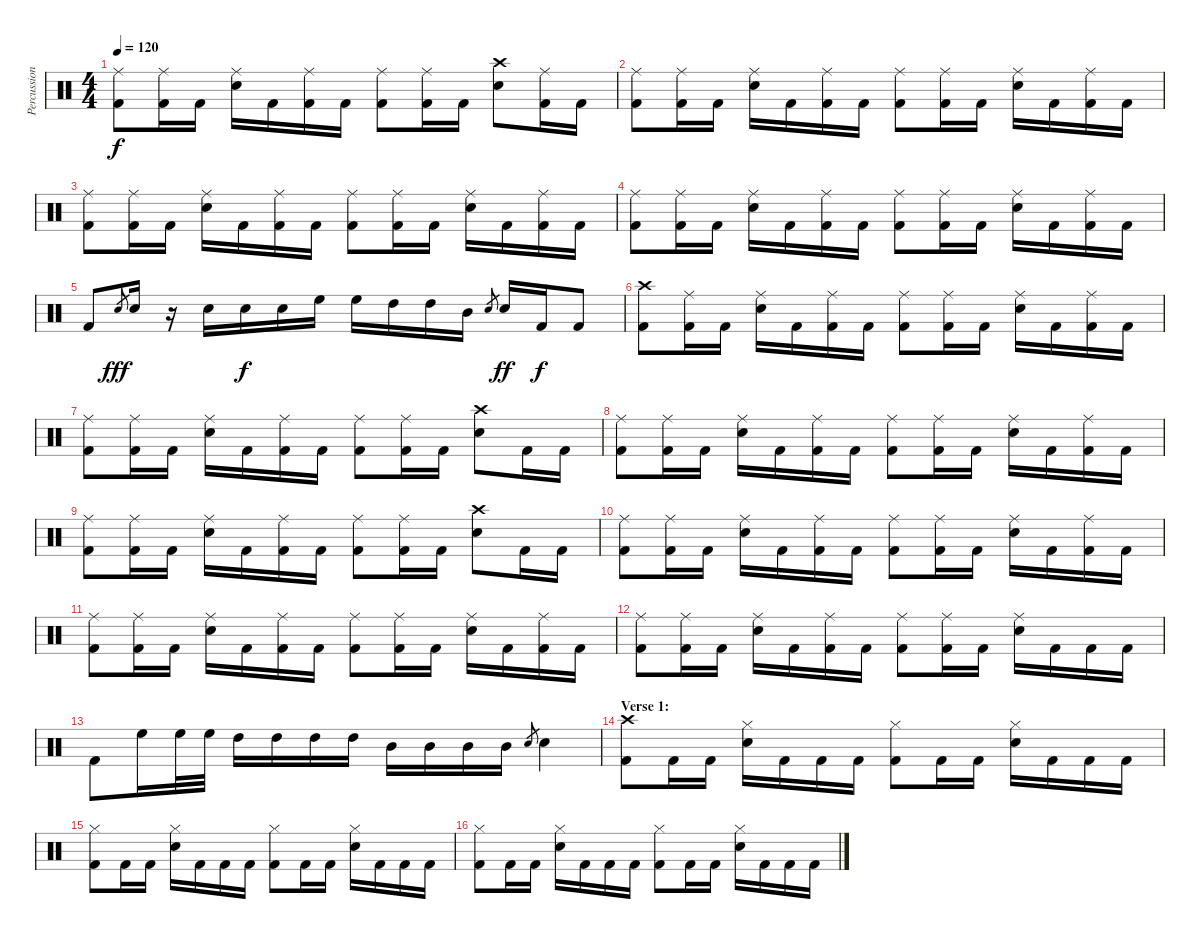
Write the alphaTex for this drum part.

\track ("Percussion" "Percussion") {instrument percussion}
\staff {score}
\articulation defaults
\ts (4 4)
\tempo 120
\clef neutral
\ks c
("Ride (middle)" "Kick (hit) 2").8{dy f} ("Ride (middle)" "Kick (hit) 2").16 "Kick (hit) 2".16 ("Ride (middle)" "Electric Snare (hit)").16 "Kick (hit) 2".16 ("Ride (middle)" "Kick (hit) 2").16 "Kick (hit) 2".16 ("Ride (middle)" "Kick (hit) 2").8 ("Ride (middle)" "Kick (hit) 2").16 "Kick (hit) 2".16 ("Crash high (hit)" "Electric Snare (hit)").8 ("Ride (middle)" "Kick (hit) 2").16 "Kick (hit) 2".16 |
("Ride (middle)" "Kick (hit) 2").8 ("Ride (middle)" "Kick (hit) 2").16 "Kick (hit) 2".16 ("Ride (middle)" "Electric Snare (hit)").16 "Kick (hit) 2".16 ("Ride (middle)" "Kick (hit) 2").16 "Kick (hit) 2".16 ("Ride (middle)" "Kick (hit) 2").8 ("Ride (middle)" "Kick (hit) 2").16 "Kick (hit) 2".16 ("Ride (middle)" "Electric Snare (hit)").16 "Kick (hit) 2".16 ("Ride (middle)" "Kick (hit) 2").16 "Kick (hit) 2".16 |
("Ride (middle)" "Kick (hit) 2").8 ("Ride (middle)" "Kick (hit) 2").16 "Kick (hit) 2".16 ("Ride (middle)" "Electric Snare (hit)").16 "Kick (hit) 2".16 ("Ride (middle)" "Kick (hit) 2").16 "Kick (hit) 2".16 ("Ride (middle)" "Kick (hit) 2").8 ("Ride (middle)" "Kick (hit) 2").16 "Kick (hit) 2".16 ("Ride (middle)" "Electric Snare (hit)").16 "Kick (hit) 2".16 ("Ride (middle)" "Kick (hit) 2").16 "Kick (hit) 2".16 |
("Ride (middle)" "Kick (hit) 2").8 ("Ride (middle)" "Kick (hit) 2").16 "Kick (hit) 2".16 ("Ride (middle)" "Electric Snare (hit)").16 "Kick (hit) 2".16 ("Ride (middle)" "Kick (hit) 2").16 "Kick (hit) 2".16 ("Ride (middle)" "Kick (hit) 2").8 ("Ride (middle)" "Kick (hit) 2").16 "Kick (hit) 2".16 ("Ride (middle)" "Electric Snare (hit)").16 "Kick (hit) 2".16 ("Ride (middle)" "Kick (hit) 2").16 "Kick (hit) 2".16 |
"Kick (hit) 2".8 "Electric Snare (hit)".8{gr dy fff} "Electric Snare (hit)".16 r.16 "Electric Snare (hit)".16 "Electric Snare (hit)".16{dy f} "Electric Snare (hit)".16 "High Floor Tom (hit)".16 "High Floor Tom (hit)".16 "High Tom (hit)".16 "High Tom (hit)".16 "Mid Tom (hit)".16 "Electric Snare (hit)".8{gr} "Electric Snare (hit)".16{dy ff} "Kick (hit) 2".16{dy f} "Kick (hit) 2".8 |
("Crash high (hit)" "Kick (hit) 2").8 ("Ride (middle)" "Kick (hit) 2").16 "Kick (hit) 2".16 ("Ride (middle)" "Electric Snare (hit)").16 "Kick (hit) 2".16 ("Ride (middle)" "Kick (hit) 2").16 "Kick (hit) 2".16 ("Ride (middle)" "Kick (hit) 2").8 ("Ride (middle)" "Kick (hit) 2").16 "Kick (hit) 2".16 ("Ride (middle)" "Electric Snare (hit)").16 "Kick (hit) 2".16 ("Ride (middle)" "Kick (hit) 2").16 "Kick (hit) 2".16 |
("Ride (middle)" "Kick (hit) 2").8 ("Ride (middle)" "Kick (hit) 2").16 "Kick (hit) 2".16 ("Ride (middle)" "Electric Snare (hit)").16 "Kick (hit) 2".16 ("Ride (middle)" "Kick (hit) 2").16 "Kick (hit) 2".16 ("Ride (middle)" "Kick (hit) 2").8 ("Ride (middle)" "Kick (hit) 2").16 "Kick (hit) 2".16 ("Crash high (hit)" "Electric Snare (hit)").8 "Kick (hit) 2".16 "Kick (hit) 2".16 |
("Ride (middle)" "Kick (hit) 2").8 ("Ride (middle)" "Kick (hit) 2").16 "Kick (hit) 2".16 ("Ride (middle)" "Electric Snare (hit)").16 "Kick (hit) 2".16 ("Ride (middle)" "Kick (hit) 2").16 "Kick (hit) 2".16 ("Ride (middle)" "Kick (hit) 2").8 ("Ride (middle)" "Kick (hit) 2").16 "Kick (hit) 2".16 ("Ride (middle)" "Electric Snare (hit)").16 "Kick (hit) 2".16 ("Ride (middle)" "Kick (hit) 2").16 "Kick (hit) 2".16 |
("Ride (middle)" "Kick (hit) 2").8 ("Ride (middle)" "Kick (hit) 2").16 "Kick (hit) 2".16 ("Ride (middle)" "Electric Snare (hit)").16 "Kick (hit) 2".16 ("Ride (middle)" "Kick (hit) 2").16 "Kick (hit) 2".16 ("Ride (middle)" "Kick (hit) 2").8 ("Ride (middle)" "Kick (hit) 2").16 "Kick (hit) 2".16 ("Crash high (hit)" "Electric Snare (hit)").8 "Kick (hit) 2".16 "Kick (hit) 2".16 |
("Ride (middle)" "Kick (hit) 2").8 ("Ride (middle)" "Kick (hit) 2").16 "Kick (hit) 2".16 ("Ride (middle)" "Electric Snare (hit)").16 "Kick (hit) 2".16 ("Ride (middle)" "Kick (hit) 2").16 "Kick (hit) 2".16 ("Ride (middle)" "Kick (hit) 2").8 ("Ride (middle)" "Kick (hit) 2").16 "Kick (hit) 2".16 ("Ride (middle)" "Electric Snare (hit)").16 "Kick (hit) 2".16 ("Ride (middle)" "Kick (hit) 2").16 "Kick (hit) 2".16 |
("Ride (middle)" "Kick (hit) 2").8 ("Ride (middle)" "Kick (hit) 2").16 "Kick (hit) 2".16 ("Ride (middle)" "Electric Snare (hit)").16 "Kick (hit) 2".16 ("Ride (middle)" "Kick (hit) 2").16 "Kick (hit) 2".16 ("Ride (middle)" "Kick (hit) 2").8 ("Ride (middle)" "Kick (hit) 2").16 "Kick (hit) 2".16 ("Ride (middle)" "Electric Snare (hit)").16 "Kick (hit) 2".16 ("Ride (middle)" "Kick (hit) 2").16 "Kick (hit) 2".16 |
("Ride (middle)" "Kick (hit) 2").8 ("Ride (middle)" "Kick (hit) 2").16 "Kick (hit) 2".16 ("Ride (middle)" "Electric Snare (hit)").16 "Kick (hit) 2".16 ("Ride (middle)" "Kick (hit) 2").16 "Kick (hit) 2".16 ("Ride (middle)" "Kick (hit) 2").8 ("Ride (middle)" "Kick (hit) 2").16 "Kick (hit) 2".16 ("Ride (middle)" "Electric Snare (hit)").16 "Kick (hit) 2".16 "Kick (hit) 2".16 "Kick (hit) 2".16 |
"Kick (hit) 2".8 "High Floor Tom (hit)".16 "High Floor Tom (hit)".32 "High Floor Tom (hit)".32 "High Tom (hit)".16 "High Tom (hit)".16 "High Tom (hit)".16 "High Tom (hit)".16 "Mid Tom (hit)".16 "Mid Tom (hit)".16 "Mid Tom (hit)".16 "Mid Tom (hit)".16 "Electric Snare (hit)".8{gr} "Electric Snare (hit)".4 |
\section ("" "Verse 1:")
("Crash high (hit)" "Kick (hit) 2").8 "Kick (hit) 2".16 "Kick (hit) 2".16 ("Hi-Hat (closed)" "Electric Snare (hit)").16 "Kick (hit) 2".16 "Kick (hit) 2".16 "Kick (hit) 2".16 ("Hi-Hat (closed)" "Kick (hit) 2").8 "Kick (hit) 2".16 "Kick (hit) 2".16 ("Hi-Hat (closed)" "Electric Snare (hit)").16 "Kick (hit) 2".16 "Kick (hit) 2".16 "Kick (hit) 2".16 |
("Hi-Hat (closed)" "Kick (hit) 2").8 "Kick (hit) 2".16 "Kick (hit) 2".16 ("Hi-Hat (closed)" "Electric Snare (hit)").16 "Kick (hit) 2".16 "Kick (hit) 2".16 "Kick (hit) 2".16 ("Hi-Hat (closed)" "Kick (hit) 2").8 "Kick (hit) 2".16 "Kick (hit) 2".16 ("Hi-Hat (closed)" "Electric Snare (hit)").16 "Kick (hit) 2".16 "Kick (hit) 2".16 "Kick (hit) 2".16 |
("Hi-Hat (closed)" "Kick (hit) 2").8 "Kick (hit) 2".16 "Kick (hit) 2".16 ("Hi-Hat (closed)" "Electric Snare (hit)").16 "Kick (hit) 2".16 "Kick (hit) 2".16 "Kick (hit) 2".16 ("Hi-Hat (closed)" "Kick (hit) 2").8 "Kick (hit) 2".16 "Kick (hit) 2".16 ("Hi-Hat (closed)" "Electric Snare (hit)").16 "Kick (hit) 2".16 "Kick (hit) 2".16 "Kick (hit) 2".16
